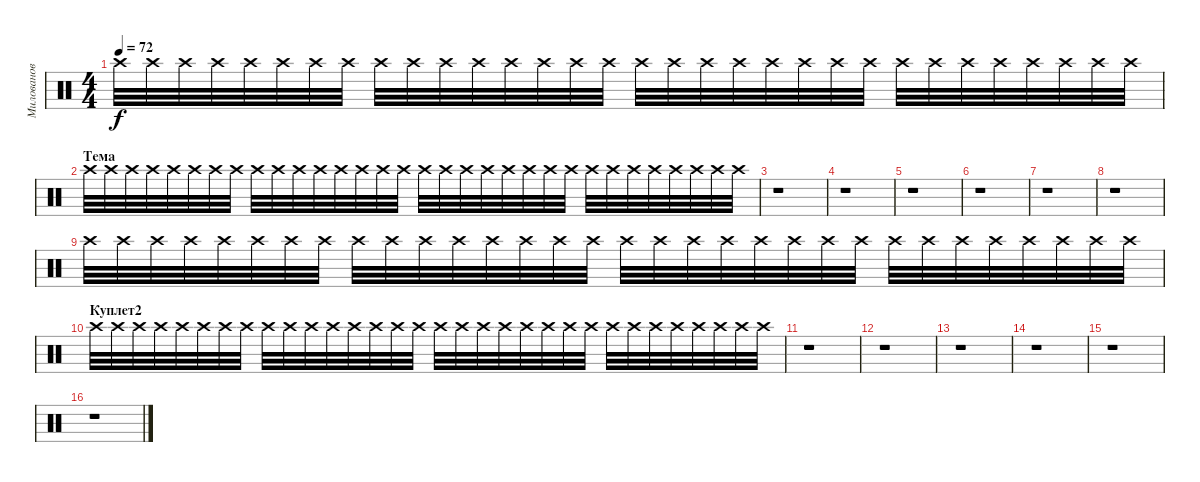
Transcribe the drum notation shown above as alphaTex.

\track ("Милованов" "Милованов") {instrument percussion}
\staff {score}
\articulation defaults
\ts (4 4)
\tempo 72
\clef neutral
\ks c "Crash high (hit)".32{dy f volume 0} "Crash high (hit)".32 "Crash high (hit)".32{volume 6} "Crash high (hit)".32 "Crash high (hit)".32 "Crash high (hit)".32 "Crash high (hit)".32 "Crash high (hit)".32 "Crash high (hit)".32 "Crash high (hit)".32 "Crash high (hit)".32 "Crash high (hit)".32 "Crash high (hit)".32 "Crash high (hit)".32 "Crash high (hit)".32 "Crash high (hit)".32 "Crash high (hit)".32 "Crash high (hit)".32 "Crash high (hit)".32 "Crash high (hit)".32 "Crash high (hit)".32 "Crash high (hit)".32 "Crash high (hit)".32 "Crash high (hit)".32 "Crash high (hit)".32 "Crash high (hit)".32 "Crash high (hit)".32{volume 0} "Crash high (hit)".32 "Crash high (hit)".32 "Crash high (hit)".32 "Crash high (hit)".32 "Crash high (hit)".32
|
\section ("" "Тема")
"Crash high (hit)".32 "Crash high (hit)".32 "Crash high (hit)".32 "Crash high (hit)".32 "Crash high (hit)".32 "Crash high (hit)".32 "Crash high (hit)".32 "Crash high (hit)".32 "Crash high (hit)".32 "Crash high (hit)".32 "Crash high (hit)".32 "Crash high (hit)".32 "Crash high (hit)".32 "Crash high (hit)".32 "Crash high (hit)".32 "Crash high (hit)".32 "Crash high (hit)".32 "Crash high (hit)".32 "Crash high (hit)".32 "Crash high (hit)".32 "Crash high (hit)".32 "Crash high (hit)".32 "Crash high (hit)".32 "Crash high (hit)".32 "Crash high (hit)".32 "Crash high (hit)".32 "Crash high (hit)".32 "Crash high (hit)".32 "Crash high (hit)".32 "Crash high (hit)".32 "Crash high (hit)".32 "Crash high (hit)".32 |
r.1 |
r.1 |
r.1 |
r.1 |
r.1 |
r.1 |
"Crash high (hit)".32 "Crash high (hit)".32 "Crash high (hit)".32{volume 6} "Crash high (hit)".32 "Crash high (hit)".32 "Crash high (hit)".32 "Crash high (hit)".32 "Crash high (hit)".32 "Crash high (hit)".32 "Crash high (hit)".32 "Crash high (hit)".32 "Crash high (hit)".32 "Crash high (hit)".32 "Crash high (hit)".32 "Crash high (hit)".32 "Crash high (hit)".32 "Crash high (hit)".32 "Crash high (hit)".32 "Crash high (hit)".32 "Crash high (hit)".32 "Crash high (hit)".32 "Crash high (hit)".32 "Crash high (hit)".32 "Crash high (hit)".32 "Crash high (hit)".32 "Crash high (hit)".32 "Crash high (hit)".32{volume 0} "Crash high (hit)".32 "Crash high (hit)".32 "Crash high (hit)".32 "Crash high (hit)".32 "Crash high (hit)".32 |
\section ("" "Куплет2")
"Crash high (hit)".32 "Crash high (hit)".32 "Crash high (hit)".32 "Crash high (hit)".32 "Crash high (hit)".32 "Crash high (hit)".32 "Crash high (hit)".32 "Crash high (hit)".32 "Crash high (hit)".32 "Crash high (hit)".32 "Crash high (hit)".32 "Crash high (hit)".32 "Crash high (hit)".32 "Crash high (hit)".32 "Crash high (hit)".32 "Crash high (hit)".32 "Crash high (hit)".32 "Crash high (hit)".32 "Crash high (hit)".32 "Crash high (hit)".32 "Crash high (hit)".32 "Crash high (hit)".32 "Crash high (hit)".32 "Crash high (hit)".32 "Crash high (hit)".32 "Crash high (hit)".32 "Crash high (hit)".32 "Crash high (hit)".32 "Crash high (hit)".32 "Crash high (hit)".32 "Crash high (hit)".32 "Crash high (hit)".32 |
r.1 |
r.1 |
r.1 |
r.1 |
r.1 |
r.1
